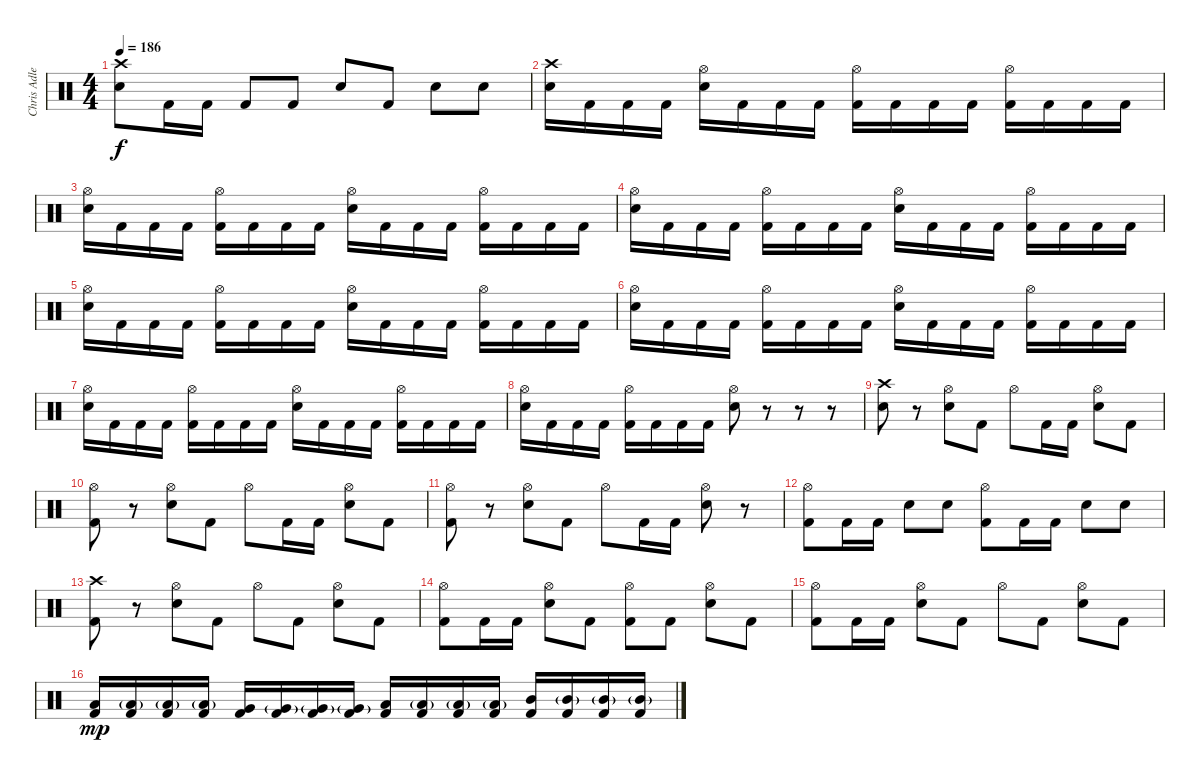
\track ("Chris Adler" "Chris Adle") {instrument percussion}
\staff {score}
\articulation defaults
\ts (4 4)
\tempo 186
\clef neutral
\ks c
("Crash high (hit)" "Electric Snare (hit)").8{dy f} "Kick (hit) 2".16 "Kick (hit) 2".16 "Kick (hit) 2".8 "Kick (hit) 2".8 "Electric Snare (hit)".8 "Kick (hit) 2".8 "Electric Snare (hit)".8 "Electric Snare (hit)".8 |
("Crash high (hit)" "Electric Snare (hit)").16 "Kick (hit) 2".16 "Kick (hit) 2".16 "Kick (hit) 2".16 ("Hi-Hat (open)" "Electric Snare (hit)").16 "Kick (hit) 2".16 "Kick (hit) 2".16 "Kick (hit) 2".16 ("Hi-Hat (open)" "Kick (hit) 2").16 "Kick (hit) 2".16 "Kick (hit) 2".16 "Kick (hit) 2".16 ("Hi-Hat (open)" "Kick (hit) 2").16 "Kick (hit) 2".16 "Kick (hit) 2".16 "Kick (hit) 2".16 |
("Hi-Hat (open)" "Electric Snare (hit)").16 "Kick (hit) 2".16 "Kick (hit) 2".16 "Kick (hit) 2".16 ("Hi-Hat (open)" "Kick (hit) 2").16 "Kick (hit) 2".16 "Kick (hit) 2".16 "Kick (hit) 2".16 ("Hi-Hat (open)" "Electric Snare (hit)").16 "Kick (hit) 2".16 "Kick (hit) 2".16 "Kick (hit) 2".16 ("Hi-Hat (open)" "Kick (hit) 2").16 "Kick (hit) 2".16 "Kick (hit) 2".16 "Kick (hit) 2".16 |
("Hi-Hat (open)" "Electric Snare (hit)").16 "Kick (hit) 2".16 "Kick (hit) 2".16 "Kick (hit) 2".16 ("Hi-Hat (open)" "Kick (hit) 2").16 "Kick (hit) 2".16 "Kick (hit) 2".16 "Kick (hit) 2".16 ("Hi-Hat (open)" "Electric Snare (hit)").16 "Kick (hit) 2".16 "Kick (hit) 2".16 "Kick (hit) 2".16 ("Hi-Hat (open)" "Kick (hit) 2").16 "Kick (hit) 2".16 "Kick (hit) 2".16 "Kick (hit) 2".16 |
("Hi-Hat (open)" "Electric Snare (hit)").16 "Kick (hit) 2".16 "Kick (hit) 2".16 "Kick (hit) 2".16 ("Hi-Hat (open)" "Kick (hit) 2").16 "Kick (hit) 2".16 "Kick (hit) 2".16 "Kick (hit) 2".16 ("Hi-Hat (open)" "Electric Snare (hit)").16 "Kick (hit) 2".16 "Kick (hit) 2".16 "Kick (hit) 2".16 ("Hi-Hat (open)" "Kick (hit) 2").16 "Kick (hit) 2".16 "Kick (hit) 2".16 "Kick (hit) 2".16 |
("Hi-Hat (open)" "Electric Snare (hit)").16 "Kick (hit) 2".16 "Kick (hit) 2".16 "Kick (hit) 2".16 ("Hi-Hat (open)" "Kick (hit) 2").16 "Kick (hit) 2".16 "Kick (hit) 2".16 "Kick (hit) 2".16 ("Hi-Hat (open)" "Electric Snare (hit)").16 "Kick (hit) 2".16 "Kick (hit) 2".16 "Kick (hit) 2".16 ("Hi-Hat (open)" "Kick (hit) 2").16 "Kick (hit) 2".16 "Kick (hit) 2".16 "Kick (hit) 2".16 |
("Hi-Hat (open)" "Electric Snare (hit)").16 "Kick (hit) 2".16 "Kick (hit) 2".16 "Kick (hit) 2".16 ("Hi-Hat (open)" "Kick (hit) 2").16 "Kick (hit) 2".16 "Kick (hit) 2".16 "Kick (hit) 2".16 ("Hi-Hat (open)" "Electric Snare (hit)").16 "Kick (hit) 2".16 "Kick (hit) 2".16 "Kick (hit) 2".16 ("Hi-Hat (open)" "Kick (hit) 2").16 "Kick (hit) 2".16 "Kick (hit) 2".16 "Kick (hit) 2".16 |
("Hi-Hat (open)" "Electric Snare (hit)").16 "Kick (hit) 2".16 "Kick (hit) 2".16 "Kick (hit) 2".16 ("Hi-Hat (open)" "Kick (hit) 2").16 "Kick (hit) 2".16 "Kick (hit) 2".16 "Kick (hit) 2".16 ("Hi-Hat (open)" "Electric Snare (hit)").8 r.8 r.8 r.8 |
("Crash high (hit)" "Electric Snare (hit)").8 r.8 ("Hi-Hat (open)" "Electric Snare (hit)").8 "Kick (hit) 2".8 "Hi-Hat (open)".8 "Kick (hit) 2".16 "Kick (hit) 2".16 ("Hi-Hat (open)" "Electric Snare (hit)").8 "Kick (hit) 2".8 |
("Hi-Hat (open)" "Kick (hit) 2").8 r.8 ("Hi-Hat (open)" "Electric Snare (hit)").8 "Kick (hit) 2".8 "Hi-Hat (open)".8 "Kick (hit) 2".16 "Kick (hit) 2".16 ("Hi-Hat (open)" "Electric Snare (hit)").8 "Kick (hit) 2".8 |
("Hi-Hat (open)" "Kick (hit) 2").8 r.8 ("Hi-Hat (open)" "Electric Snare (hit)").8 "Kick (hit) 2".8 "Hi-Hat (open)".8 "Kick (hit) 2".16 "Kick (hit) 2".16 ("Hi-Hat (open)" "Electric Snare (hit)").8 r.8 |
("Hi-Hat (open)" "Kick (hit) 2").8 "Kick (hit) 2".16 "Kick (hit) 2".16 "Electric Snare (hit)".8 "Electric Snare (hit)".8 ("Hi-Hat (open)" "Kick (hit) 2").8 "Kick (hit) 2".16 "Kick (hit) 2".16 "Electric Snare (hit)".8 "Electric Snare (hit)".8 |
("Crash high (hit)" "Kick (hit) 2").8 r.8 ("Hi-Hat (open)" "Electric Snare (hit)").8 "Kick (hit) 2".8 "Hi-Hat (open)".8 "Kick (hit) 2".8 ("Hi-Hat (open)" "Electric Snare (hit)").8 "Kick (hit) 2".8 |
("Hi-Hat (open)" "Kick (hit) 2").8 "Kick (hit) 2".16 "Kick (hit) 2".16 ("Hi-Hat (open)" "Electric Snare (hit)").8 "Kick (hit) 2".8 ("Hi-Hat (open)" "Kick (hit) 2").8 "Kick (hit) 2".8 ("Hi-Hat (open)" "Electric Snare (hit)").8 "Kick (hit) 2".8 |
("Hi-Hat (open)" "Kick (hit) 2").8 "Kick (hit) 2".16 "Kick (hit) 2".16 ("Hi-Hat (open)" "Electric Snare (hit)").8 "Kick (hit) 2".8 "Hi-Hat (open)".8 "Kick (hit) 2".8 ("Hi-Hat (open)" "Electric Snare (hit)").8 "Kick (hit) 2".8 |
("Low Floor Tom (hit)" "Kick (hit) 2").16{dy mp} ("Low Floor Tom (hit)"{g} "Kick (hit) 2").16 ("Low Floor Tom (hit)"{g} "Kick (hit) 2").16 ("Low Floor Tom (hit)"{g} "Kick (hit) 2").16 ("Very Low Tom (hit)" "Kick (hit) 2").16 ("Very Low Tom (hit)"{g} "Kick (hit) 2").16 ("Very Low Tom (hit)"{g} "Kick (hit) 2").16 ("Very Low Tom (hit)"{g} "Kick (hit) 2").16 ("Low Tom (hit)" "Kick (hit) 2").16 ("Low Tom (hit)"{g} "Kick (hit) 2").16 ("Low Tom (hit)"{g} "Kick (hit) 2").16 ("Low Tom (hit)"{g} "Kick (hit) 2").16 ("Mid Tom (hit)" "Kick (hit) 2").16 ("Mid Tom (hit)"{g} "Kick (hit) 2").16 ("Mid Tom (hit)"{g} "Kick (hit) 2").16 ("Mid Tom (hit)"{g} "Kick (hit) 2").16
